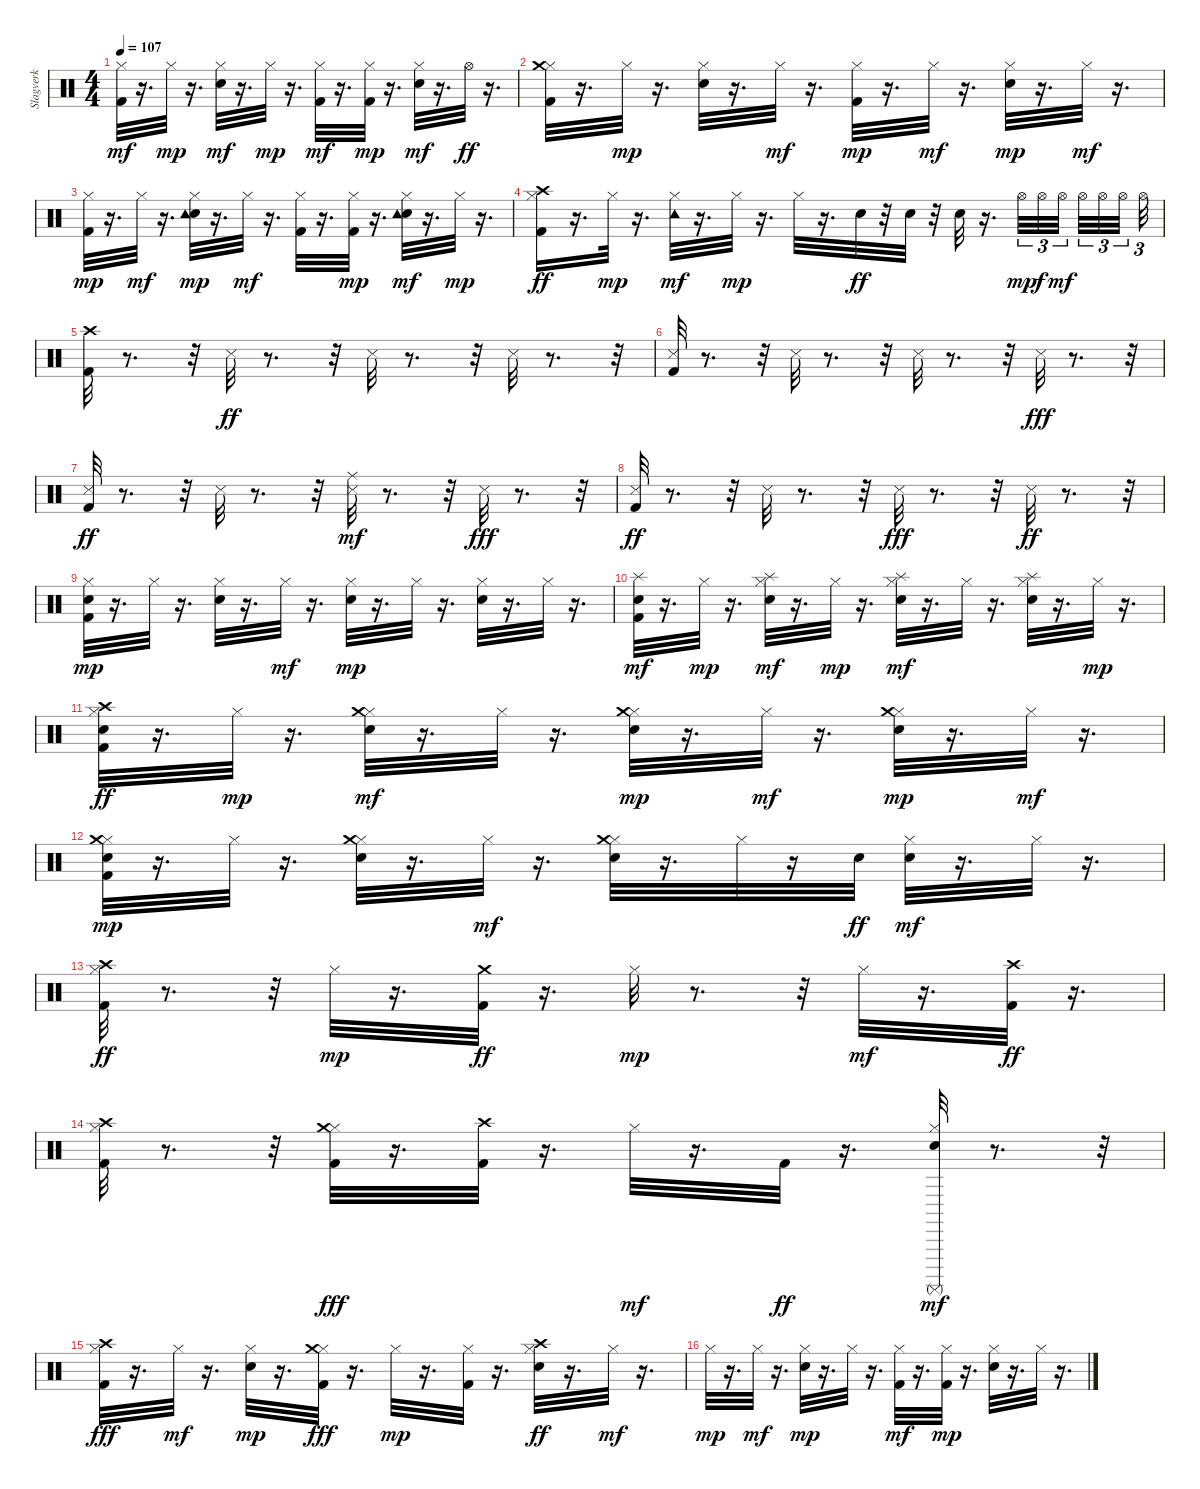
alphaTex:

\track ("Slagverk" "Slagverk") {instrument percussion}
\staff {score}
\articulation defaults
\ts (4 4)
\tempo 107
\clef neutral
\ks c
("Kick (hit) 2" "Hi-Hat (closed)").32{dy mf} r.16{d} "Hi-Hat (closed)".32{dy mp} r.16{d} ("Snare (hit) 2" "Hi-Hat (closed)").32{dy mf} r.16{d} "Hi-Hat (closed)".32{dy mp} r.16{d} ("Kick (hit) 2" "Hi-Hat (closed)").32{dy mf} r.16{d} ("Kick (hit) 2" "Hi-Hat (closed)").32{dy mp} r.16{d} ("Snare (hit) 2" "Hi-Hat (closed)").32{dy mf} r.16{d} "Hi-Hat (open)".32{dy ff} r.16{d} |
("Kick (hit) 2" "Hi-Hat (closed)" "Crash medium (hit)").32 r.16{d} "Hi-Hat (closed)".32{dy mp} r.16{d} ("Snare (hit) 2" "Hi-Hat (closed)").32 r.16{d} "Hi-Hat (closed)".32{dy mf} r.16{d} ("Kick (hit) 2" "Hi-Hat (closed)").32{dy mp} r.16{d} "Hi-Hat (closed)".32{dy mf} r.16{d} ("Snare (hit) 2" "Hi-Hat (closed)").32{dy mp} r.16{d} "Hi-Hat (closed)".32{dy mf} r.16{d} |
("Kick (hit) 2" "Hi-Hat (closed)").32{dy mp} r.16{d} "Hi-Hat (closed)".32{dy mf} r.16{d} ("Snare (hit) 2" "Hi-Hat (closed)" "Tambourine (hit)").32{dy mp} r.16{d} "Hi-Hat (closed)".32{dy mf} r.16{d} ("Kick (hit) 2" "Hi-Hat (closed)").32 r.16{d} ("Kick (hit) 2" "Hi-Hat (closed)").32{dy mp} r.16{d} ("Snare (hit) 2" "Hi-Hat (closed)" "Tambourine (hit)").32{dy mf} r.16{d} "Hi-Hat (closed)".32{dy mp} r.16{d} |
("Kick (hit) 2" "Hi-Hat (closed)" "Crash high (hit)").16{dy ff} r.16{d} "Hi-Hat (closed)".32{dy mp} r.16{d} ("Hi-Hat (closed)" "Tambourine (hit)").32{dy mf} r.16{d} "Hi-Hat (closed)".32{dy mp} r.16{d} "Hi-Hat (closed)".32 r.16{d} "Snare (hit) 2".32{dy ff} r.32 "Snare (hit) 2".32 r.32 "Snare (hit) 2".32 r.16{d} "Hi-Hat (open)".32{tu (3 2) dy mp} "Hi-Hat (open)".32{tu (3 2) dy f} "Hi-Hat (open)".32{tu (3 2) dy mf beam splitsecondary} "Hi-Hat (open)".32{tu (3 2)} "Hi-Hat (open)".32{tu (3 2)} "Hi-Hat (open)".32{tu (3 2)} "Hi-Hat (open)".32{tu (3 2)} |
("Kick (hit) 2" "Crash high (hit)").32 r.8{d} r.32 "Snare (side stick) 3".32{dy ff} r.8{d} r.32 "Snare (side stick) 3".32 r.8{d} r.32 "Snare (side stick) 3".32 r.8{d} r.32 |
("Kick (hit) 2" "Snare (side stick) 3").32 r.8{d} r.32 "Snare (side stick) 3".32 r.8{d} r.32 "Snare (side stick) 3".32 r.8{d} r.32 "Snare (side stick) 3".32{dy fff} r.8{d} r.32 |
("Kick (hit) 2" "Snare (side stick) 3").32{dy ff} r.8{d} r.32 "Snare (side stick) 3".32 r.8{d} r.32 ("Snare (side stick) 3" "Ride (middle)").32{dy mf} r.8{d} r.32 "Snare (side stick) 3".32{dy fff} r.8{d} r.32 |
("Kick (hit) 2" "Snare (side stick) 3").32{dy ff} r.8{d} r.32 "Snare (side stick) 3".32 r.8{d} r.32 "Snare (side stick) 3".32{dy fff} r.8{d} r.32 "Snare (side stick) 3".32{dy ff} r.8{d} r.32 |
("Kick (hit) 2" "Electric Snare (hit)" "Hi-Hat (closed)").32{dy mp} r.16{d} "Hi-Hat (closed)".32 r.16{d} ("Electric Snare (hit)" "Hi-Hat (closed)").32 r.16{d} "Hi-Hat (closed)".32{dy mf} r.16{d} ("Electric Snare (hit)" "Hi-Hat (closed)").32{dy mp} r.16{d} "Hi-Hat (closed)".32 r.16{d} ("Electric Snare (hit)" "Hi-Hat (closed)").32 r.16{d} "Hi-Hat (closed)".32 r.16{d} |
("Kick (hit) 2" "Electric Snare (hit)" "Splash (hit)").32{dy mf} r.16{d} "Hi-Hat (closed)".32{dy mp} r.16{d} ("Electric Snare (hit)" "Hi-Hat (closed)" "Splash (hit)").32{dy mf} r.16{d} "Hi-Hat (closed)".32{dy mp} r.16{d} ("Electric Snare (hit)" "Hi-Hat (closed)" "Splash (hit)").32{dy mf} r.16{d} "Hi-Hat (closed)".32 r.16{d} ("Electric Snare (hit)" "Hi-Hat (closed)" "Splash (hit)").32 r.16{d} "Hi-Hat (closed)".32{dy mp} r.16{d} |
("Kick (hit) 2" "Electric Snare (hit)" "Hi-Hat (closed)" "Crash high (hit)").32{dy ff} r.16{d} "Hi-Hat (closed)".32{dy mp} r.16{d} ("Electric Snare (hit)" "Hi-Hat (closed)" "Crash medium (hit)").32{dy mf} r.16{d} "Hi-Hat (closed)".32 r.16{d} ("Electric Snare (hit)" "Hi-Hat (closed)" "Crash medium (hit)").32{dy mp} r.16{d} "Hi-Hat (closed)".32{dy mf} r.16{d} ("Electric Snare (hit)" "Hi-Hat (closed)" "Crash medium (hit)").32{dy mp} r.16{d} "Hi-Hat (closed)".32{dy mf} r.16{d} |
("Kick (hit) 2" "Electric Snare (hit)" "Hi-Hat (closed)" "Crash medium (hit)").32{dy mp} r.16{d} "Hi-Hat (closed)".32 r.16{d} ("Electric Snare (hit)" "Hi-Hat (closed)" "Crash medium (hit)").32 r.16{d} "Hi-Hat (closed)".32{dy mf} r.16{d} ("Electric Snare (hit)" "Hi-Hat (closed)" "Crash medium (hit)").32 r.16{d} "Hi-Hat (closed)".32 r.16 "Snare (hit) 2".32{dy ff} ("Snare (hit) 2" "Hi-Hat (closed)").32{dy mf} r.16{d} "Hi-Hat (closed)".32 r.16{d} |
("Kick (hit) 2" "Hi-Hat (closed)" "Crash high (hit)").32{dy ff} r.8{d} r.32 "Hi-Hat (closed)".32{dy mp} r.16{d} ("Kick (hit) 2" "Crash medium (hit)").32{dy ff} r.16{d} "Hi-Hat (closed)".32{dy mp} r.8{d} r.32 "Hi-Hat (closed)".32{dy mf} r.16{d} ("Kick (hit) 2" "Crash high (hit)").32{dy ff} r.16{d} |
("Kick (hit) 2" "Hi-Hat (closed)" "Crash high (hit)").32 r.8{d} r.32 ("Kick (hit) 2" "Hi-Hat (closed)" "Crash medium (hit)").32{dy fff} r.16{d} ("Kick (hit) 2" "Crash high (hit)").32 r.16{d} "Hi-Hat (closed)".32{dy mf} r.16{d} "Kick (hit) 2".32{dy ff} r.16{d} ("Snare (hit) 2" "Hi-Hat (closed)" "Surdo (mute)").32{dy mf} r.8{d} r.32 |
("Kick (hit) 2" "Hi-Hat (closed)" "Crash high (hit)").32{dy fff} r.16{d} "Hi-Hat (closed)".32{dy mf} r.16{d} ("Snare (hit) 2" "Hi-Hat (closed)").32{dy mp} r.16{d} ("Kick (hit) 2" "Hi-Hat (closed)" "Crash medium (hit)").32{dy fff} r.16{d} "Hi-Hat (closed)".32{dy mp} r.16{d} ("Kick (hit) 2" "Hi-Hat (closed)").32 r.16{d} ("Snare (hit) 2" "Hi-Hat (closed)" "Crash high (hit)").32{dy ff} r.16{d} "Hi-Hat (closed)".32{dy mf} r.16{d} |
"Hi-Hat (closed)".32{dy mp} r.16{d} "Hi-Hat (closed)".32{dy mf} r.16{d} ("Snare (hit) 2" "Hi-Hat (closed)").32{dy mp} r.16{d} "Hi-Hat (closed)".32 r.16{d} ("Kick (hit) 2" "Hi-Hat (closed)").32{dy mf} r.16{d} ("Kick (hit) 2" "Hi-Hat (closed)").32{dy mp} r.16{d} ("Snare (hit) 2" "Hi-Hat (closed)").32 r.16{d} "Hi-Hat (closed)".32 r.16{d}
